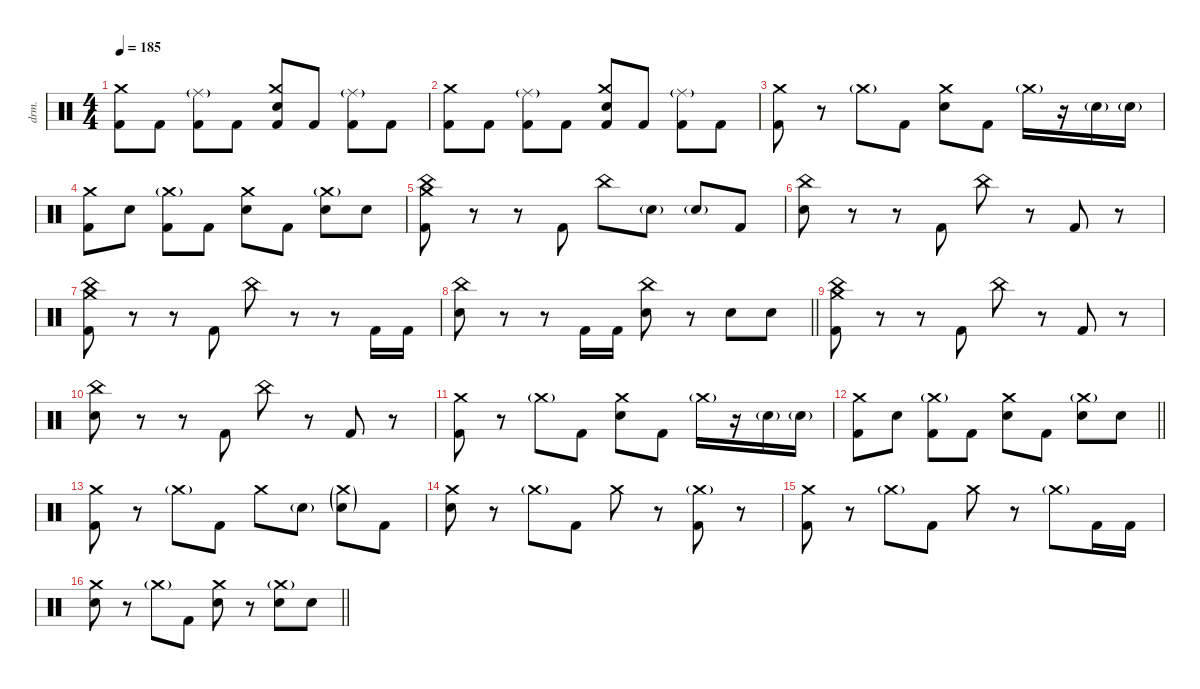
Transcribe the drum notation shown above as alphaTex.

\defaultSystemsLayout 4
\hideDynamics
\bracketExtendMode nobrackets
\track ("Drums - Šimon" "drm.") {instrument percussion}
\staff {score}
\articulation defaults
\ts (4 4)
\tempo 185
\clef neutral
\ks c
("Kick (hit) 2" "Crash medium (hit)").8{dy ff} "Kick (hit) 2".8 ("Kick (hit) 2" "Ride (middle)"{g}).8 "Kick (hit) 2".8 ("Snare (hit) 2" "Crash medium (hit)" "Kick (hit) 2").8 "Kick (hit) 2".8 ("Kick (hit) 2" "Ride (middle)"{g}).8 "Kick (hit) 2".8 |
("Crash medium (hit)" "Kick (hit) 2").8 "Kick (hit) 2".8 ("Kick (hit) 2" "Ride (middle)"{g}).8 "Kick (hit) 2".8 ("Snare (hit) 2" "Crash medium (hit)" "Kick (hit) 2").8 "Kick (hit) 2".8 ("Kick (hit) 2" "Ride (middle)"{g}).8 "Kick (hit) 2".8 |
("Kick (hit) 2" "Crash medium (hit)").8 r.8 "Crash medium (hit)"{g}.8 "Kick (hit) 2".8 ("Snare (hit) 2" "Crash medium (hit)").8 "Kick (hit) 2".8 "Crash medium (hit)"{g}.16 r.16 "Snare (hit) 2"{g}.16 "Snare (hit) 2"{g}.16 |
("Crash medium (hit)" "Kick (hit) 2").8 "Snare (hit) 2".8 ("Kick (hit) 2" "Crash medium (hit)"{g}).8 "Kick (hit) 2".8 ("Snare (hit) 2" "Crash medium (hit)").8 "Kick (hit) 2".8 ("Crash medium (hit)"{g} "Snare (hit) 2").8 "Snare (hit) 2".8 |
("Kick (hit) 2" "Crash medium (hit)" "China (hit)").8{beam Down} r.8{beam Down} r.8{beam Down} "Kick (hit) 2".8{beam Up} "China (hit)".8{beam Down} "Snare (hit) 2"{g}.8{beam Down} "Snare (hit) 2"{g}.8{beam Up} "Kick (hit) 2".8{beam Up} |
("Snare (hit) 2" "China (hit)").8{beam Down} r.8{beam Down} r.8{beam Down} "Kick (hit) 2".8{beam Up} "China (hit)".8{beam Down} r.8{beam Down} "Kick (hit) 2".8{beam Up} r.8{beam Down} |
("Kick (hit) 2" "China (hit)" "Crash medium (hit)").8{beam Down} r.8{beam Down} r.8{beam Down} "Kick (hit) 2".8{beam Up} "China (hit)".8{beam Down} r.8{beam Down} r.8{beam Down} "Kick (hit) 2".16{beam Up} "Kick (hit) 2".16{beam Up} |
\barLineRight lightlight
("Snare (hit) 2" "China (hit)").8{beam Down} r.8{beam Down} r.8{beam Down} "Kick (hit) 2".16{beam Up} "Kick (hit) 2".16{beam Up} ("Snare (hit) 2" "China (hit)").8{beam Down} r.8{beam Down} "Snare (hit) 2".8{beam Down} "Snare (hit) 2".8{beam Down} |
("Kick (hit) 2" "Crash medium (hit)" "China (hit)").8{beam Down} r.8{beam Down} r.8{beam Down} "Kick (hit) 2".8{beam Up} "China (hit)".8{beam Down} r.8{beam Down} "Kick (hit) 2".8{beam Up} r.8{beam Down} |
("Snare (hit) 2" "China (hit)").8{beam Down} r.8{beam Down} r.8{beam Down} "Kick (hit) 2".8{beam Up} "China (hit)".8{beam Down} r.8{beam Down} "Kick (hit) 2".8{beam Up} r.8{beam Down} |
("Kick (hit) 2" "Crash medium (hit)").8{beam Down} r.8{beam Down} "Crash medium (hit)"{g}.8{beam Down} "Kick (hit) 2".8{beam Down} ("Snare (hit) 2" "Crash medium (hit)").8{beam Down} "Kick (hit) 2".8{beam Down} "Crash medium (hit)"{g}.16{beam Down} r.16{beam Down} "Snare (hit) 2"{g}.16{beam Down} "Snare (hit) 2"{g}.16{beam Down} |
\barLineRight lightlight
("Crash medium (hit)" "Kick (hit) 2").8{beam Down} "Snare (hit) 2".8{beam Down} ("Kick (hit) 2" "Crash medium (hit)"{g}).8{beam Down} "Kick (hit) 2".8{beam Down} ("Snare (hit) 2" "Crash medium (hit)").8{beam Down} "Kick (hit) 2".8{beam Down} ("Crash medium (hit)"{g} "Snare (hit) 2").8{beam Down} "Snare (hit) 2".8{beam Down} |
("Kick (hit) 2" "Crash medium (hit)").8{beam Down} r.8{beam Down} "Crash medium (hit)"{g}.8{beam Down} "Kick (hit) 2".8{beam Down} "Crash medium (hit)".8{beam Down} "Snare (hit) 2"{g}.8{beam Down} ("Crash medium (hit)"{g} "Snare (hit) 2"{g}).8{beam Down} "Kick (hit) 2".8{beam Down} |
("Snare (hit) 2" "Crash medium (hit)").8{beam Down} r.8{beam Down} "Crash medium (hit)"{g}.8{beam Down} "Kick (hit) 2".8{beam Down} "Crash medium (hit)".8{beam Down} r.8{beam Down} ("Kick (hit) 2" "Crash medium (hit)"{g}).8{beam Down} r.8{beam Down} |
("Kick (hit) 2" "Crash medium (hit)").8{beam Down} r.8{beam Down} "Crash medium (hit)"{g}.8{beam Down} "Kick (hit) 2".8{beam Down} "Crash medium (hit)".8{beam Down} r.8{beam Down} "Crash medium (hit)"{g}.8{beam Down} "Kick (hit) 2".16{beam Down} "Kick (hit) 2".16{beam Down} |
\barLineRight lightlight
("Snare (hit) 2" "Crash medium (hit)").8{beam Down} r.8{beam Down} "Crash medium (hit)"{g}.8{beam Down} "Kick (hit) 2".8{beam Down} ("Snare (hit) 2" "Crash medium (hit)").8{beam Down} r.8{beam Down} ("Snare (hit) 2" "Crash medium (hit)"{g}).8{beam Down} "Snare (hit) 2".8{beam Down}
